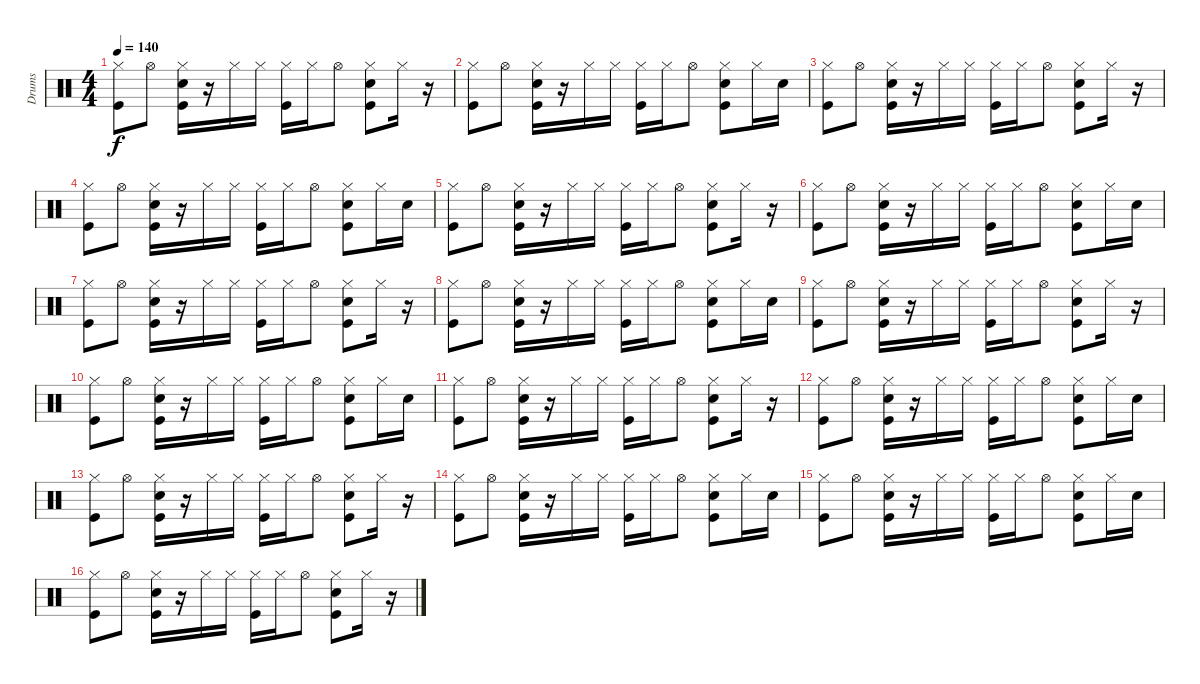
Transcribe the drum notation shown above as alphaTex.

\track ("Drums" "Drums") {instrument percussion}
\staff {score}
\articulation defaults
\ts (4 4)
\tempo 140
\clef neutral
\ks c
("Hi-Hat (closed)" "Kick (hit)").8{dy f} "Hi-Hat (open)".8 ("Hi-Hat (closed)" "Snare (hit) 2" "Kick (hit)").16 r.16 "Hi-Hat (closed)".16 "Hi-Hat (closed)".16 ("Hi-Hat (closed)" "Kick (hit)").16 "Hi-Hat (closed)".16 "Hi-Hat (open)".8 ("Hi-Hat (closed)" "Snare (hit) 2" "Kick (hit)").8 "Hi-Hat (closed)".16 r.16 |
("Hi-Hat (closed)" "Kick (hit)").8 "Hi-Hat (open)".8 ("Hi-Hat (closed)" "Snare (hit) 2" "Kick (hit)").16 r.16 "Hi-Hat (closed)".16 "Hi-Hat (closed)".16 ("Hi-Hat (closed)" "Kick (hit)").16 "Hi-Hat (closed)".16 "Hi-Hat (open)".8 ("Hi-Hat (closed)" "Snare (hit) 2" "Kick (hit)").8 "Hi-Hat (closed)".16 "Snare (hit) 2".16 |
("Hi-Hat (closed)" "Kick (hit)").8 "Hi-Hat (open)".8 ("Hi-Hat (closed)" "Snare (hit) 2" "Kick (hit)").16 r.16 "Hi-Hat (closed)".16 "Hi-Hat (closed)".16 ("Hi-Hat (closed)" "Kick (hit)").16 "Hi-Hat (closed)".16 "Hi-Hat (open)".8 ("Hi-Hat (closed)" "Snare (hit) 2" "Kick (hit)").8 "Hi-Hat (closed)".16 r.16 |
("Hi-Hat (closed)" "Kick (hit)").8 "Hi-Hat (open)".8 ("Hi-Hat (closed)" "Snare (hit) 2" "Kick (hit)").16 r.16 "Hi-Hat (closed)".16 "Hi-Hat (closed)".16 ("Hi-Hat (closed)" "Kick (hit)").16 "Hi-Hat (closed)".16 "Hi-Hat (open)".8 ("Hi-Hat (closed)" "Snare (hit) 2" "Kick (hit)").8 "Hi-Hat (closed)".16 "Snare (hit) 2".16 |
("Hi-Hat (closed)" "Kick (hit)").8 "Hi-Hat (open)".8 ("Hi-Hat (closed)" "Snare (hit) 2" "Kick (hit)").16 r.16 "Hi-Hat (closed)".16 "Hi-Hat (closed)".16 ("Hi-Hat (closed)" "Kick (hit)").16 "Hi-Hat (closed)".16 "Hi-Hat (open)".8 ("Hi-Hat (closed)" "Snare (hit) 2" "Kick (hit)").8 "Hi-Hat (closed)".16 r.16 |
("Hi-Hat (closed)" "Kick (hit)").8 "Hi-Hat (open)".8 ("Hi-Hat (closed)" "Snare (hit) 2" "Kick (hit)").16 r.16 "Hi-Hat (closed)".16 "Hi-Hat (closed)".16 ("Hi-Hat (closed)" "Kick (hit)").16 "Hi-Hat (closed)".16 "Hi-Hat (open)".8 ("Hi-Hat (closed)" "Snare (hit) 2" "Kick (hit)").8 "Hi-Hat (closed)".16 "Snare (hit) 2".16 |
("Hi-Hat (closed)" "Kick (hit)").8 "Hi-Hat (open)".8 ("Hi-Hat (closed)" "Snare (hit) 2" "Kick (hit)").16 r.16 "Hi-Hat (closed)".16 "Hi-Hat (closed)".16 ("Hi-Hat (closed)" "Kick (hit)").16 "Hi-Hat (closed)".16 "Hi-Hat (open)".8 ("Hi-Hat (closed)" "Snare (hit) 2" "Kick (hit)").8 "Hi-Hat (closed)".16 r.16 |
("Hi-Hat (closed)" "Kick (hit)").8 "Hi-Hat (open)".8 ("Hi-Hat (closed)" "Snare (hit) 2" "Kick (hit)").16 r.16 "Hi-Hat (closed)".16 "Hi-Hat (closed)".16 ("Hi-Hat (closed)" "Kick (hit)").16 "Hi-Hat (closed)".16 "Hi-Hat (open)".8 ("Hi-Hat (closed)" "Snare (hit) 2" "Kick (hit)").8 "Hi-Hat (closed)".16 "Snare (hit) 2".16 |
("Hi-Hat (closed)" "Kick (hit)").8 "Hi-Hat (open)".8 ("Hi-Hat (closed)" "Snare (hit) 2" "Kick (hit)").16 r.16 "Hi-Hat (closed)".16 "Hi-Hat (closed)".16 ("Hi-Hat (closed)" "Kick (hit)").16 "Hi-Hat (closed)".16 "Hi-Hat (open)".8 ("Hi-Hat (closed)" "Snare (hit) 2" "Kick (hit)").8 "Hi-Hat (closed)".16 r.16 |
("Hi-Hat (closed)" "Kick (hit)").8 "Hi-Hat (open)".8 ("Hi-Hat (closed)" "Snare (hit) 2" "Kick (hit)").16 r.16 "Hi-Hat (closed)".16 "Hi-Hat (closed)".16 ("Hi-Hat (closed)" "Kick (hit)").16 "Hi-Hat (closed)".16 "Hi-Hat (open)".8 ("Hi-Hat (closed)" "Snare (hit) 2" "Kick (hit)").8 "Hi-Hat (closed)".16 "Snare (hit) 2".16 |
("Hi-Hat (closed)" "Kick (hit)").8 "Hi-Hat (open)".8 ("Hi-Hat (closed)" "Snare (hit) 2" "Kick (hit)").16 r.16 "Hi-Hat (closed)".16 "Hi-Hat (closed)".16 ("Hi-Hat (closed)" "Kick (hit)").16 "Hi-Hat (closed)".16 "Hi-Hat (open)".8 ("Hi-Hat (closed)" "Snare (hit) 2" "Kick (hit)").8 "Hi-Hat (closed)".16 r.16 |
("Hi-Hat (closed)" "Kick (hit)").8 "Hi-Hat (open)".8 ("Hi-Hat (closed)" "Snare (hit) 2" "Kick (hit)").16 r.16 "Hi-Hat (closed)".16 "Hi-Hat (closed)".16 ("Hi-Hat (closed)" "Kick (hit)").16 "Hi-Hat (closed)".16 "Hi-Hat (open)".8 ("Hi-Hat (closed)" "Snare (hit) 2" "Kick (hit)").8 "Hi-Hat (closed)".16 "Snare (hit) 2".16 |
("Hi-Hat (closed)" "Kick (hit)").8 "Hi-Hat (open)".8 ("Hi-Hat (closed)" "Snare (hit) 2" "Kick (hit)").16 r.16 "Hi-Hat (closed)".16 "Hi-Hat (closed)".16 ("Hi-Hat (closed)" "Kick (hit)").16 "Hi-Hat (closed)".16 "Hi-Hat (open)".8 ("Hi-Hat (closed)" "Snare (hit) 2" "Kick (hit)").8 "Hi-Hat (closed)".16 r.16 |
("Hi-Hat (closed)" "Kick (hit)").8 "Hi-Hat (open)".8 ("Hi-Hat (closed)" "Snare (hit) 2" "Kick (hit)").16 r.16 "Hi-Hat (closed)".16 "Hi-Hat (closed)".16 ("Hi-Hat (closed)" "Kick (hit)").16 "Hi-Hat (closed)".16 "Hi-Hat (open)".8 ("Hi-Hat (closed)" "Snare (hit) 2" "Kick (hit)").8 "Hi-Hat (closed)".16 "Snare (hit) 2".16 |
("Hi-Hat (closed)" "Kick (hit)").8 "Hi-Hat (open)".8 ("Hi-Hat (closed)" "Snare (hit) 2" "Kick (hit)").16 r.16 "Hi-Hat (closed)".16 "Hi-Hat (closed)".16 ("Hi-Hat (closed)" "Kick (hit)").16 "Hi-Hat (closed)".16 "Hi-Hat (open)".8 ("Hi-Hat (closed)" "Snare (hit) 2" "Kick (hit)").8 "Hi-Hat (closed)".16 "Snare (hit) 2".16 |
("Hi-Hat (closed)" "Kick (hit)").8 "Hi-Hat (open)".8 ("Hi-Hat (closed)" "Snare (hit) 2" "Kick (hit)").16 r.16 "Hi-Hat (closed)".16 "Hi-Hat (closed)".16 ("Hi-Hat (closed)" "Kick (hit)").16 "Hi-Hat (closed)".16 "Hi-Hat (open)".8 ("Hi-Hat (closed)" "Snare (hit) 2" "Kick (hit)").8 "Hi-Hat (closed)".16 r.16
